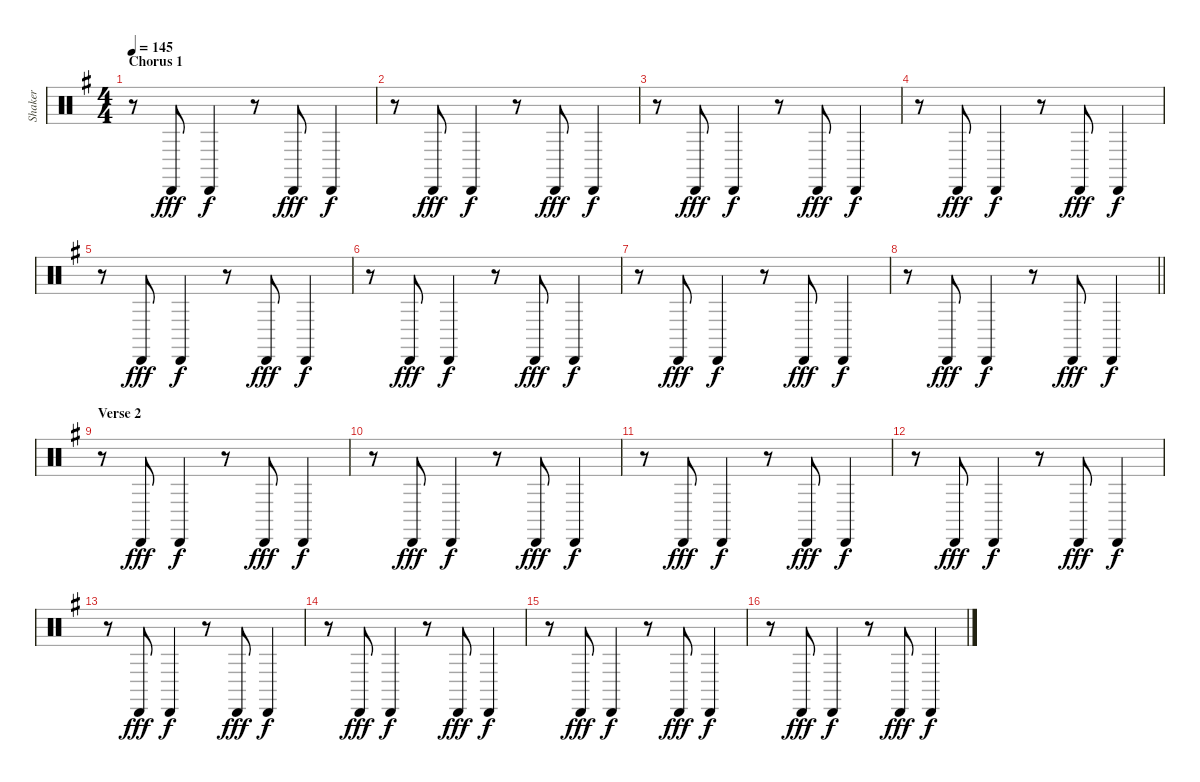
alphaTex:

\track ("Shaker" "Shaker") {instrument percussion}
\staff {score}
\articulation defaults
\ts (4 4)
\section ("" "Chorus 1")
\tempo 145
\clef neutral
\ks g
r.8{dy f} "Cabasa (hit)".8{dy fff} "Cabasa (hit)".4{dy f} r.8 "Cabasa (hit)".8{dy fff} "Cabasa (hit)".4{dy f} |
r.8 "Cabasa (hit)".8{dy fff} "Cabasa (hit)".4{dy f} r.8 "Cabasa (hit)".8{dy fff} "Cabasa (hit)".4{dy f} |
r.8 "Cabasa (hit)".8{dy fff} "Cabasa (hit)".4{dy f} r.8 "Cabasa (hit)".8{dy fff} "Cabasa (hit)".4{dy f} |
r.8 "Cabasa (hit)".8{dy fff} "Cabasa (hit)".4{dy f} r.8 "Cabasa (hit)".8{dy fff} "Cabasa (hit)".4{dy f} |
r.8 "Cabasa (hit)".8{dy fff} "Cabasa (hit)".4{dy f} r.8 "Cabasa (hit)".8{dy fff} "Cabasa (hit)".4{dy f} |
r.8 "Cabasa (hit)".8{dy fff} "Cabasa (hit)".4{dy f} r.8 "Cabasa (hit)".8{dy fff} "Cabasa (hit)".4{dy f} |
r.8 "Cabasa (hit)".8{dy fff} "Cabasa (hit)".4{dy f} r.8 "Cabasa (hit)".8{dy fff} "Cabasa (hit)".4{dy f} |
\barLineRight lightlight
r.8 "Cabasa (hit)".8{dy fff} "Cabasa (hit)".4{dy f} r.8 "Cabasa (hit)".8{dy fff} "Cabasa (hit)".4{dy f} |
\section ("" "Verse 2")
r.8 "Cabasa (hit)".8{dy fff} "Cabasa (hit)".4{dy f} r.8 "Cabasa (hit)".8{dy fff} "Cabasa (hit)".4{dy f} |
r.8 "Cabasa (hit)".8{dy fff} "Cabasa (hit)".4{dy f} r.8 "Cabasa (hit)".8{dy fff} "Cabasa (hit)".4{dy f} |
r.8 "Cabasa (hit)".8{dy fff} "Cabasa (hit)".4{dy f} r.8 "Cabasa (hit)".8{dy fff} "Cabasa (hit)".4{dy f} |
r.8 "Cabasa (hit)".8{dy fff} "Cabasa (hit)".4{dy f} r.8 "Cabasa (hit)".8{dy fff} "Cabasa (hit)".4{dy f} |
r.8 "Cabasa (hit)".8{dy fff} "Cabasa (hit)".4{dy f} r.8 "Cabasa (hit)".8{dy fff} "Cabasa (hit)".4{dy f} |
r.8 "Cabasa (hit)".8{dy fff} "Cabasa (hit)".4{dy f} r.8 "Cabasa (hit)".8{dy fff} "Cabasa (hit)".4{dy f} |
r.8 "Cabasa (hit)".8{dy fff} "Cabasa (hit)".4{dy f} r.8 "Cabasa (hit)".8{dy fff} "Cabasa (hit)".4{dy f} |
r.8 "Cabasa (hit)".8{dy fff} "Cabasa (hit)".4{dy f} r.8 "Cabasa (hit)".8{dy fff} "Cabasa (hit)".4{dy f}
